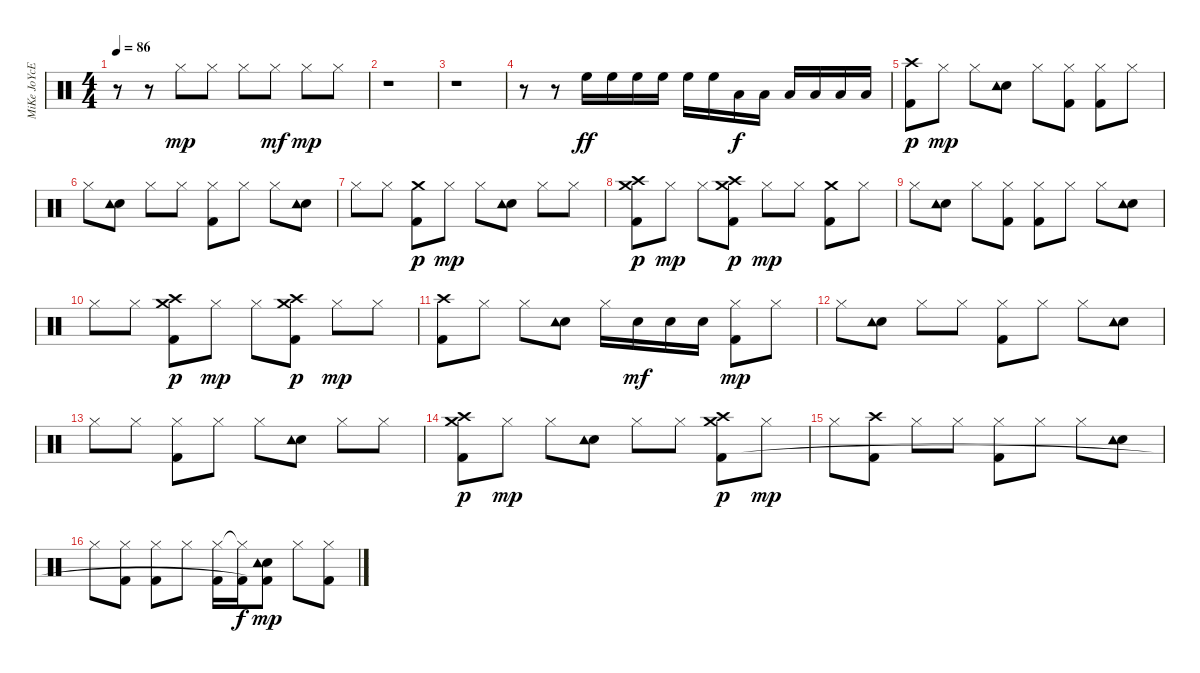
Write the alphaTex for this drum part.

\track ("MiKe JoYcE" "MiKe JoYcE") {instrument percussion}
\staff {score}
\articulation defaults
\ts (4 4)
\tempo 86
\clef neutral
\ks c
r.8{dy mp} r.8 "Hi-Hat (closed)".8 "Hi-Hat (closed)".8 "Hi-Hat (closed)".8 "Hi-Hat (closed)".8{dy mf} "Hi-Hat (closed)".8{dy mp} "Hi-Hat (closed)".8 |
r.1 |
r.1 |
r.8 r.8 "High Floor Tom (hit)".16{dy ff} "High Floor Tom (hit)".16 "High Floor Tom (hit)".16 "High Floor Tom (hit)".16 "High Floor Tom (hit)".16 "High Floor Tom (hit)".16 "Low Floor Tom (hit)".16{dy f} "Low Floor Tom (hit)".16 "Low Floor Tom (hit)".16 "Low Floor Tom (hit)".16 "Low Floor Tom (hit)".16 "Low Floor Tom (hit)".16 |
("Crash high (hit)" "Kick (hit) 2").8{dy p} "Hi-Hat (closed)".8{dy mp} "Hi-Hat (closed)".8 ("Electric Snare (hit)" "Tambourine (hit)").8 "Hi-Hat (closed)".8 ("Hi-Hat (closed)" "Kick (hit) 2").8 ("Hi-Hat (closed)" "Kick (hit) 2").8 "Hi-Hat (closed)".8 |
"Hi-Hat (closed)".8 ("Electric Snare (hit)" "Tambourine (hit)").8 "Hi-Hat (closed)".8 "Hi-Hat (closed)".8 ("Hi-Hat (closed)" "Kick (hit) 2").8 "Hi-Hat (closed)".8 "Hi-Hat (closed)".8 ("Electric Snare (hit)" "Tambourine (hit)").8 |
"Hi-Hat (closed)".8 "Hi-Hat (closed)".8 ("Crash medium (hit)" "Kick (hit) 2").8{dy p} "Hi-Hat (closed)".8{dy mp} "Hi-Hat (closed)".8 ("Electric Snare (hit)" "Tambourine (hit)").8 "Hi-Hat (closed)".8 "Hi-Hat (closed)".8 |
("Crash medium (hit)" "Crash high (hit)" "Kick (hit) 2").8{dy p} "Hi-Hat (closed)".8{dy mp} "Hi-Hat (closed)".8 ("Crash high (hit)" "Crash medium (hit)" "Kick (hit) 2").8{dy p} "Hi-Hat (closed)".8{dy mp} "Hi-Hat (closed)".8 ("Crash medium (hit)" "Kick (hit) 2").8 "Hi-Hat (closed)".8 |
"Hi-Hat (closed)".8 ("Electric Snare (hit)" "Tambourine (hit)").8 "Hi-Hat (closed)".8 ("Hi-Hat (closed)" "Kick (hit) 2").8 ("Hi-Hat (closed)" "Kick (hit) 2").8 "Hi-Hat (closed)".8 "Hi-Hat (closed)".8 ("Electric Snare (hit)" "Tambourine (hit)").8 |
"Hi-Hat (closed)".8 "Hi-Hat (closed)".8 ("Crash medium (hit)" "Crash high (hit)" "Kick (hit) 2").8{dy p} "Hi-Hat (closed)".8{dy mp} "Hi-Hat (closed)".8 ("Crash high (hit)" "Crash medium (hit)" "Kick (hit) 2").8{dy p} "Hi-Hat (closed)".8{dy mp} "Hi-Hat (closed)".8 |
("Crash high (hit)" "Kick (hit) 2").8 "Hi-Hat (closed)".8 "Hi-Hat (closed)".8 ("Electric Snare (hit)" "Tambourine (hit)").8 "Hi-Hat (closed)".16 "Electric Snare (hit)".16{dy mf} "Electric Snare (hit)".16 "Electric Snare (hit)".16 ("Hi-Hat (closed)" "Kick (hit) 2").8{dy mp} "Hi-Hat (closed)".8 |
"Hi-Hat (closed)".8 ("Electric Snare (hit)" "Tambourine (hit)").8 "Hi-Hat (closed)".8 "Hi-Hat (closed)".8 ("Hi-Hat (closed)" "Kick (hit) 2").8 "Hi-Hat (closed)".8 "Hi-Hat (closed)".8 ("Electric Snare (hit)" "Tambourine (hit)").8 |
"Hi-Hat (closed)".8 "Hi-Hat (closed)".8 ("Hi-Hat (closed)" "Kick (hit) 2").8 "Hi-Hat (closed)".8 "Hi-Hat (closed)".8 ("Electric Snare (hit)" "Tambourine (hit)").8 "Hi-Hat (closed)".8 "Hi-Hat (closed)".8 |
("Crash medium (hit)" "Crash high (hit)" "Kick (hit) 2").8{dy p} "Hi-Hat (closed)".8{dy mp} "Hi-Hat (closed)".8 ("Electric Snare (hit)" "Tambourine (hit)").8 "Hi-Hat (closed)".8 "Hi-Hat (closed)".8 ("Crash high (hit)" "Crash medium (hit)" "Kick (hit) 2").8{dy p} "Hi-Hat (closed)".8{dy mp} |
"Hi-Hat (closed)".8 ("Crash high (hit)" "Kick (hit) 2").8 "Hi-Hat (closed)".8 "Hi-Hat (closed)".8 ("Hi-Hat (closed)" "Kick (hit) 2").8 "Hi-Hat (closed)".8 "Hi-Hat (closed)".8 ("Electric Snare (hit)" "Tambourine (hit)").8 |
"Hi-Hat (closed)".8 ("Hi-Hat (closed)" "Kick (hit) 2").8 ("Hi-Hat (closed)" "Kick (hit) 2").8 "Hi-Hat (closed)".8 ("Hi-Hat (closed)" "Kick (hit) 2").16 ("Hi-Hat (closed)"{t} "Kick (hit) 2").16{dy f} ("Electric Snare (hit)" "Tambourine (hit)" "Kick (hit) 2"{t}).8{dy mp} "Hi-Hat (closed)".8 ("Hi-Hat (closed)" "Kick (hit) 2").8
